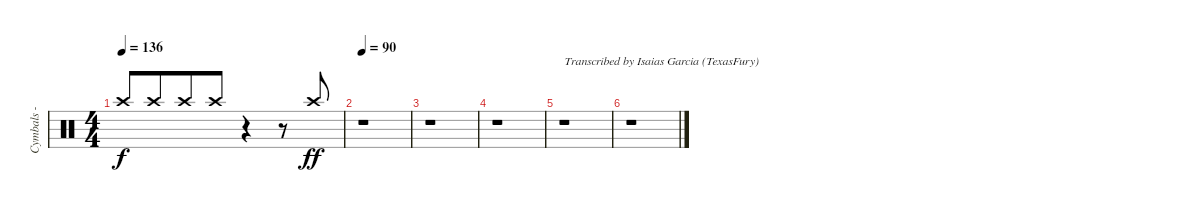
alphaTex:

\track ("Cymbals - crash - left" "Cymbals - ") {instrument percussion}
\staff {score}
\articulation defaults
\ts (4 4)
\tempo 136
\clef neutral
\ks c "Crash high (hit)".8{dy f beam Up} "Crash high (hit)".8{beam Up beam merge} "Crash high (hit)".8{beam Up} "Crash high (hit)".8{beam Up}
r.4{beam merge} r.8 "Crash high (hit)".8{dy ff beam Up} |
\tempo 90
r.1 |
r.1 |
r.1 |
r.1{txt "Transcribed by Isaias Garcia (TexasFury)"} |
r.1
